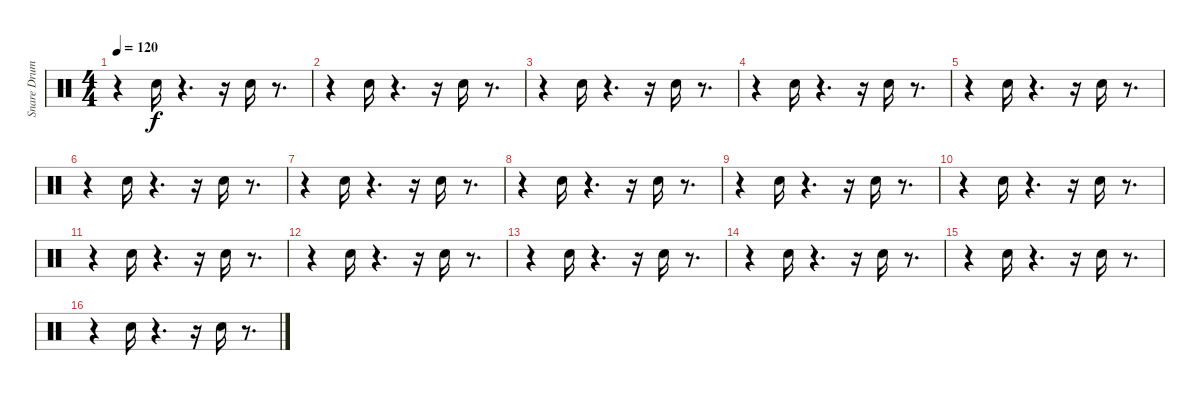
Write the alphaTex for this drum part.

\track ("Snare Drum" "Snare Drum") {instrument percussion}
\staff {score}
\articulation defaults
\ts (4 4)
\tempo 120
\clef neutral
\ks c
r.4{dy f} "Snare (hit) 2".16 r.4{d} r.16 "Snare (hit) 2".16 r.8{d} |
r.4 "Snare (hit) 2".16 r.4{d} r.16 "Snare (hit) 2".16 r.8{d} |
r.4 "Snare (hit) 2".16 r.4{d} r.16 "Snare (hit) 2".16 r.8{d} |
r.4 "Snare (hit) 2".16 r.4{d} r.16 "Snare (hit) 2".16 r.8{d} |
r.4 "Snare (hit) 2".16 r.4{d} r.16 "Snare (hit) 2".16 r.8{d} |
r.4 "Snare (hit) 2".16 r.4{d} r.16 "Snare (hit) 2".16 r.8{d} |
r.4 "Snare (hit) 2".16 r.4{d} r.16 "Snare (hit) 2".16 r.8{d} |
r.4 "Snare (hit) 2".16 r.4{d} r.16 "Snare (hit) 2".16 r.8{d} |
r.4 "Snare (hit) 2".16 r.4{d} r.16 "Snare (hit) 2".16 r.8{d} |
r.4 "Snare (hit) 2".16 r.4{d} r.16 "Snare (hit) 2".16 r.8{d} |
r.4 "Snare (hit) 2".16 r.4{d} r.16 "Snare (hit) 2".16 r.8{d} |
r.4 "Snare (hit) 2".16 r.4{d} r.16 "Snare (hit) 2".16 r.8{d} |
r.4 "Snare (hit) 2".16 r.4{d} r.16 "Snare (hit) 2".16 r.8{d} |
r.4 "Snare (hit) 2".16 r.4{d} r.16 "Snare (hit) 2".16 r.8{d} |
r.4 "Snare (hit) 2".16 r.4{d} r.16 "Snare (hit) 2".16 r.8{d} |
r.4 "Snare (hit) 2".16 r.4{d} r.16 "Snare (hit) 2".16 r.8{d}
